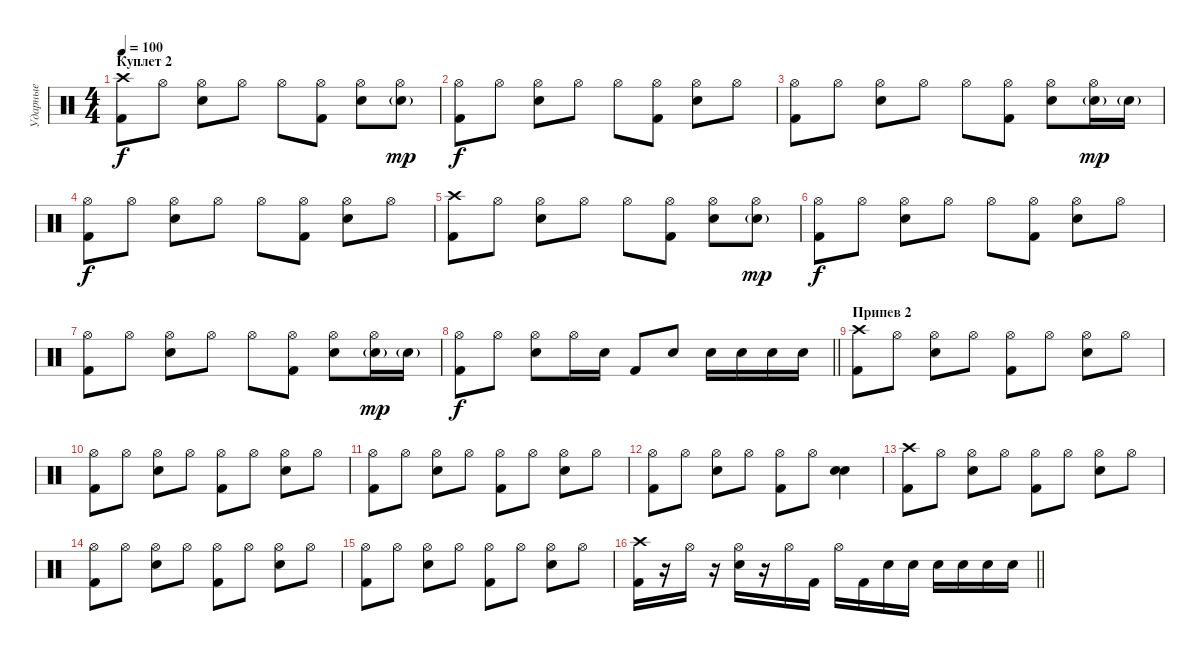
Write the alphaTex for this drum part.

\track ("Ударные" "Ударные") {instrument percussion}
\staff {score}
\articulation defaults
\ts (4 4)
\section ("" "Куплет 2")
\tempo 100
\clef neutral
\ks c
("Crash high (hit)" "Kick (hit) 2").8{dy f} "Hi-Hat (open)".8 ("Hi-Hat (open)" "Electric Snare (hit)").8 "Hi-Hat (open)".8 "Hi-Hat (open)".8 ("Hi-Hat (open)" "Kick (hit) 2").8 ("Hi-Hat (open)" "Electric Snare (hit)").8 ("Hi-Hat (open)" "Electric Snare (hit)"{g}).8{dy mp} |
("Hi-Hat (open)" "Kick (hit) 2").8{dy f} "Hi-Hat (open)".8 ("Hi-Hat (open)" "Electric Snare (hit)").8 "Hi-Hat (open)".8 "Hi-Hat (open)".8 ("Hi-Hat (open)" "Kick (hit) 2").8 ("Hi-Hat (open)" "Electric Snare (hit)").8 "Hi-Hat (open)".8 |
("Hi-Hat (open)" "Kick (hit) 2").8 "Hi-Hat (open)".8 ("Hi-Hat (open)" "Electric Snare (hit)").8 "Hi-Hat (open)".8 "Hi-Hat (open)".8 ("Hi-Hat (open)" "Kick (hit) 2").8 ("Hi-Hat (open)" "Electric Snare (hit)").8 ("Hi-Hat (open)" "Electric Snare (hit)"{g}).16{dy mp} "Electric Snare (hit)"{g}.16 |
("Hi-Hat (open)" "Kick (hit) 2").8{dy f} "Hi-Hat (open)".8 ("Hi-Hat (open)" "Electric Snare (hit)").8 "Hi-Hat (open)".8 "Hi-Hat (open)".8 ("Hi-Hat (open)" "Kick (hit) 2").8 ("Hi-Hat (open)" "Electric Snare (hit)").8 "Hi-Hat (open)".8 |
("Crash high (hit)" "Kick (hit) 2").8 "Hi-Hat (open)".8 ("Hi-Hat (open)" "Electric Snare (hit)").8 "Hi-Hat (open)".8 "Hi-Hat (open)".8 ("Hi-Hat (open)" "Kick (hit) 2").8 ("Hi-Hat (open)" "Electric Snare (hit)").8 ("Hi-Hat (open)" "Electric Snare (hit)"{g}).8{dy mp} |
("Hi-Hat (open)" "Kick (hit) 2").8{dy f} "Hi-Hat (open)".8 ("Hi-Hat (open)" "Electric Snare (hit)").8 "Hi-Hat (open)".8 "Hi-Hat (open)".8 ("Hi-Hat (open)" "Kick (hit) 2").8 ("Hi-Hat (open)" "Electric Snare (hit)").8 "Hi-Hat (open)".8 |
("Hi-Hat (open)" "Kick (hit) 2").8 "Hi-Hat (open)".8 ("Hi-Hat (open)" "Electric Snare (hit)").8 "Hi-Hat (open)".8 "Hi-Hat (open)".8 ("Hi-Hat (open)" "Kick (hit) 2").8 ("Hi-Hat (open)" "Electric Snare (hit)").8 ("Hi-Hat (open)" "Electric Snare (hit)"{g}).16{dy mp} "Electric Snare (hit)"{g}.16 |
\barLineRight lightlight
("Hi-Hat (open)" "Kick (hit) 2").8{dy f} "Hi-Hat (open)".8 ("Hi-Hat (open)" "Electric Snare (hit)").8 "Hi-Hat (open)".16 "Electric Snare (hit)".16 "Kick (hit) 2".8 "Electric Snare (hit)".8 "Electric Snare (hit)".16 "Electric Snare (hit)".16 "Electric Snare (hit)".16 "Electric Snare (hit)".16 |
\section ("" "Припев 2")
("Crash high (hit)" "Kick (hit) 2").8 "Hi-Hat (open)".8 ("Hi-Hat (open)" "Electric Snare (hit)").8 "Hi-Hat (open)".8 ("Hi-Hat (open)" "Kick (hit) 2").8 "Hi-Hat (open)".8 ("Hi-Hat (open)" "Electric Snare (hit)").8 "Hi-Hat (open)".8 |
("Hi-Hat (open)" "Kick (hit) 2").8 "Hi-Hat (open)".8 ("Hi-Hat (open)" "Electric Snare (hit)").8 "Hi-Hat (open)".8 ("Hi-Hat (open)" "Kick (hit) 2").8 "Hi-Hat (open)".8 ("Hi-Hat (open)" "Electric Snare (hit)").8 "Hi-Hat (open)".8 |
("Hi-Hat (open)" "Kick (hit) 2").8 "Hi-Hat (open)".8 ("Hi-Hat (open)" "Electric Snare (hit)").8 "Hi-Hat (open)".8 ("Hi-Hat (open)" "Kick (hit) 2").8 "Hi-Hat (open)".8 ("Hi-Hat (open)" "Electric Snare (hit)").8 "Hi-Hat (open)".8 |
("Hi-Hat (open)" "Kick (hit) 2").8 "Hi-Hat (open)".8 ("Hi-Hat (open)" "Electric Snare (hit)").8 "Hi-Hat (open)".8 ("Hi-Hat (open)" "Kick (hit) 2").8 "Hi-Hat (open)".8 ("Electric Snare (hit)" "Electric Snare (hit)").4 |
("Crash high (hit)" "Kick (hit) 2").8 "Hi-Hat (open)".8 ("Hi-Hat (open)" "Electric Snare (hit)").8 "Hi-Hat (open)".8 ("Hi-Hat (open)" "Kick (hit) 2").8 "Hi-Hat (open)".8 ("Hi-Hat (open)" "Electric Snare (hit)").8 "Hi-Hat (open)".8 |
("Hi-Hat (open)" "Kick (hit) 2").8 "Hi-Hat (open)".8 ("Hi-Hat (open)" "Electric Snare (hit)").8 "Hi-Hat (open)".8 ("Hi-Hat (open)" "Kick (hit) 2").8 "Hi-Hat (open)".8 ("Hi-Hat (open)" "Electric Snare (hit)").8 "Hi-Hat (open)".8 |
("Hi-Hat (open)" "Kick (hit) 2").8 "Hi-Hat (open)".8 ("Hi-Hat (open)" "Electric Snare (hit)").8 "Hi-Hat (open)".8 ("Hi-Hat (open)" "Kick (hit) 2").8 "Hi-Hat (open)".8 ("Hi-Hat (open)" "Electric Snare (hit)").8 "Hi-Hat (open)".8 |
\barLineRight lightlight
("Crash high (hit)" "Kick (hit) 2").16 r.16 "Hi-Hat (open)".16 r.16 ("Hi-Hat (open)" "Electric Snare (hit)").16 r.16 "Hi-Hat (open)".16 "Kick (hit) 2".16 "Hi-Hat (open)".16 "Kick (hit) 2".16 "Electric Snare (hit)".16 "Electric Snare (hit)".16 "Electric Snare (hit)".16 "Electric Snare (hit)".16 "Electric Snare (hit)".16 "Electric Snare (hit)".16
